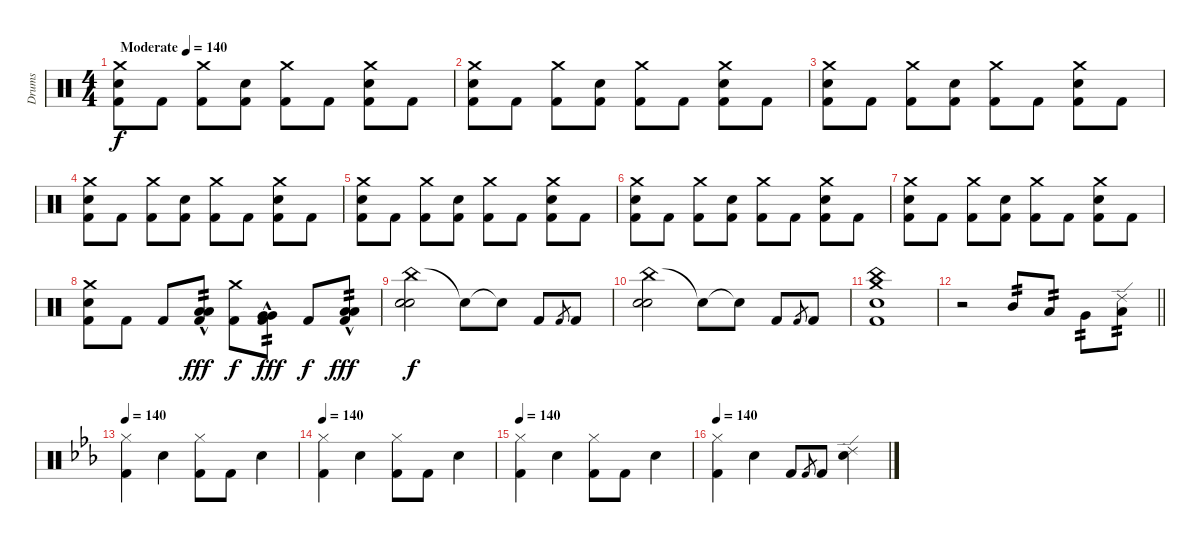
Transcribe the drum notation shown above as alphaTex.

\track ("Drums" "Drums") {instrument percussion}
\staff {score}
\articulation defaults
\ts (4 4)
\tempo (140 "Moderate")
\clef neutral
\ks c
("Crash medium (hit)" "Snare (hit) 2" "Kick (hit) 2").8{dy f} "Kick (hit) 2".8 ("Crash medium (hit)" "Kick (hit) 2").8 ("Snare (hit) 2" "Kick (hit) 2").8 ("Crash medium (hit)" "Kick (hit) 2").8 "Kick (hit) 2".8 ("Crash medium (hit)" "Snare (hit) 2" "Kick (hit) 2").8 "Kick (hit) 2".8 |
("Crash medium (hit)" "Snare (hit) 2" "Kick (hit) 2").8 "Kick (hit) 2".8 ("Crash medium (hit)" "Kick (hit) 2").8 ("Snare (hit) 2" "Kick (hit) 2").8 ("Crash medium (hit)" "Kick (hit) 2").8 "Kick (hit) 2".8 ("Crash medium (hit)" "Snare (hit) 2" "Kick (hit) 2").8 "Kick (hit) 2".8 |
("Crash medium (hit)" "Snare (hit) 2" "Kick (hit) 2").8 "Kick (hit) 2".8 ("Crash medium (hit)" "Kick (hit) 2").8 ("Snare (hit) 2" "Kick (hit) 2").8 ("Crash medium (hit)" "Kick (hit) 2").8 "Kick (hit) 2".8 ("Crash medium (hit)" "Snare (hit) 2" "Kick (hit) 2").8 "Kick (hit) 2".8 |
("Crash medium (hit)" "Snare (hit) 2" "Kick (hit) 2").8 "Kick (hit) 2".8 ("Crash medium (hit)" "Kick (hit) 2").8 ("Snare (hit) 2" "Kick (hit) 2").8 ("Crash medium (hit)" "Kick (hit) 2").8 "Kick (hit) 2".8 ("Crash medium (hit)" "Snare (hit) 2" "Kick (hit) 2").8 "Kick (hit) 2".8 |
("Crash medium (hit)" "Snare (hit) 2" "Kick (hit) 2").8 "Kick (hit) 2".8 ("Crash medium (hit)" "Kick (hit) 2").8 ("Snare (hit) 2" "Kick (hit) 2").8 ("Crash medium (hit)" "Kick (hit) 2").8 "Kick (hit) 2".8 ("Crash medium (hit)" "Snare (hit) 2" "Kick (hit) 2").8 "Kick (hit) 2".8 |
("Crash medium (hit)" "Snare (hit) 2" "Kick (hit) 2").8 "Kick (hit) 2".8 ("Crash medium (hit)" "Kick (hit) 2").8 ("Snare (hit) 2" "Kick (hit) 2").8 ("Crash medium (hit)" "Kick (hit) 2").8 "Kick (hit) 2".8 ("Crash medium (hit)" "Snare (hit) 2" "Kick (hit) 2").8 "Kick (hit) 2".8 |
("Crash medium (hit)" "Snare (hit) 2" "Kick (hit) 2").8 "Kick (hit) 2".8 ("Crash medium (hit)" "Kick (hit) 2").8 ("Snare (hit) 2" "Kick (hit) 2").8 ("Crash medium (hit)" "Kick (hit) 2").8 "Kick (hit) 2".8 ("Crash medium (hit)" "Snare (hit) 2" "Kick (hit) 2").8 "Kick (hit) 2".8 |
("Crash medium (hit)" "Snare (hit) 2" "Kick (hit) 2").8 "Kick (hit) 2".8 "Kick (hit) 2".8 ("Low Tom (hit)" "Low Tom (hit)"{hac} "Kick (hit) 2").8{tp 2 dy fff} ("Crash medium (hit)" "Kick (hit) 2").8{dy f} ("Very Low Tom (hit)" "Very Low Tom (hit)"{hac} "Kick (hit) 2").8{tp 2 dy fff} "Kick (hit) 2".8{dy f} ("Low Floor Tom (hit)" "Low Floor Tom (hit)"{hac} "Kick (hit) 2").8{tp 2 dy fff} |
("China (hit)" "Snare (hit) 2" "Snare (hit) 2").2{dy f} "Snare (hit)"{t}.8 "Snare (hit)"{t}.8 "Kick (hit) 2".8 "Kick (hit) 2".8{gr} "Kick (hit) 2".8 |
("China (hit)" "Snare (hit) 2" "Snare (hit) 2").2 "Snare (hit)"{t}.8 "Snare (hit)"{t}.8 "Kick (hit) 2".8 "Kick (hit) 2".8{gr} "Kick (hit) 2".8 |
("China (hit)" "Crash medium (hit)" "Snare (hit) 2" "Kick (hit) 2").1 |
\barLineRight lightlight
r.2 "Mid Tom (hit)".8{tp 2} "Low Tom (hit)".8{tp 2} "Very Low Tom (hit)".8{tp 2} ("Ride (edge) 2" "Low Floor Tom (hit)").8{tp 2} |
\tempo 140
\ks eb
("Hi-Hat (closed)" "Kick (hit) 2").4 "Snare (hit) 2".4 ("Hi-Hat (closed)" "Kick (hit) 2").8 "Kick (hit) 2".8 "Snare (hit) 2".4 |
\tempo 140
("Hi-Hat (closed)" "Kick (hit) 2").4 "Snare (hit) 2".4 ("Hi-Hat (closed)" "Kick (hit) 2").8 "Kick (hit) 2".8 "Snare (hit) 2".4 |
\tempo 140
("Hi-Hat (closed)" "Kick (hit) 2").4 "Snare (hit) 2".4 ("Hi-Hat (closed)" "Kick (hit) 2").8 "Kick (hit) 2".8 "Snare (hit) 2".4 |
\tempo 140
("Hi-Hat (closed)" "Kick (hit) 2").4 "Snare (hit) 2".4 "Kick (hit) 2".8 "Kick (hit) 2".8{gr} "Kick (hit) 2".8 ("Ride (edge) 2" "Snare (hit) 2").4
